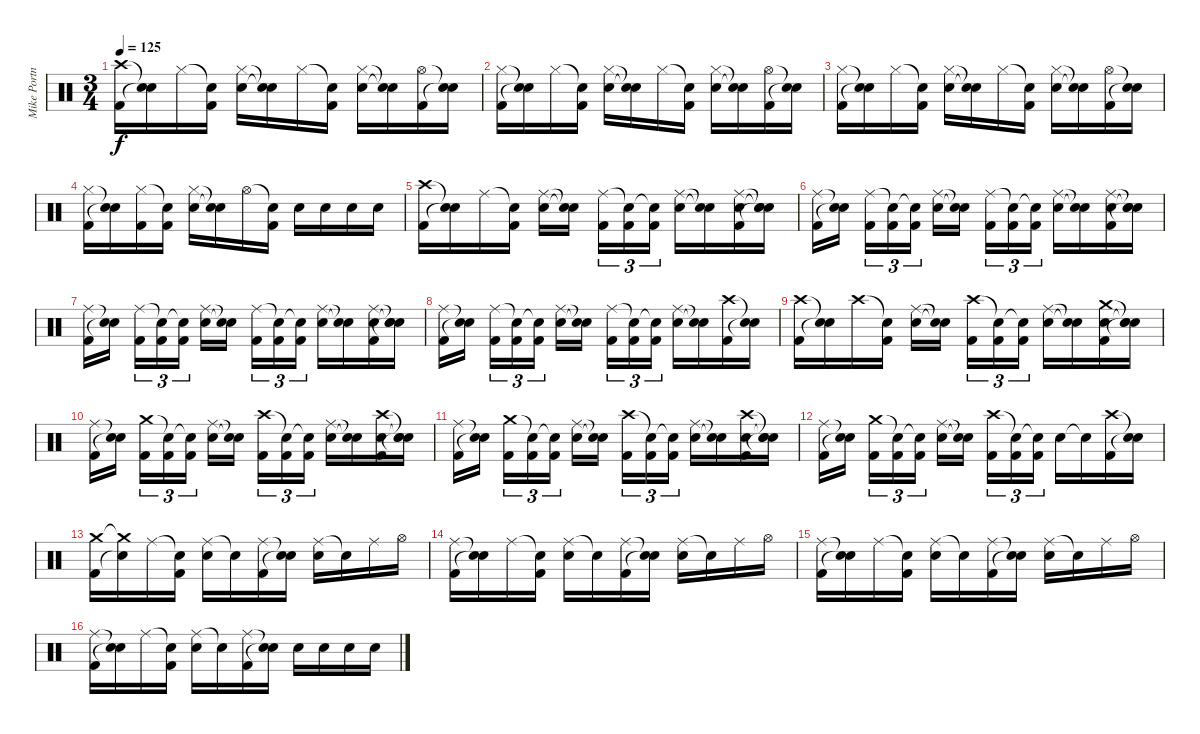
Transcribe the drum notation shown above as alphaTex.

\track ("Mike Portnoy Drums" "Mike Portn") {instrument percussion}
\staff {score}
\articulation defaults
\ts (3 4)
\tempo 125
\clef neutral
\ks c
("Crash high (hit)" "Kick (hit) 2").16{dy f} ("Snare (hit)"{t} "Snare (hit)"{t}).16 "Hi-Hat (closed)".16 ("Snare (hit)"{t} "Kick (hit) 2").16 ("Hi-Hat (closed)" "Snare (hit) 2").16 ("Snare (hit)"{t} "Snare (hit)"{t}).16 "Hi-Hat (closed)".16 ("Snare (hit)"{t} "Kick (hit) 2").16 ("Hi-Hat (closed)" "Snare (hit) 2").16 ("Snare (hit)"{t} "Snare (hit)"{t}).16 ("Hi-Hat (open)" "Kick (hit) 2").16 ("Snare (hit)"{t} "Snare (hit)"{t}).16 |
("Hi-Hat (closed)" "Kick (hit) 2").16 ("Snare (hit)"{t} "Snare (hit)"{t}).16 "Hi-Hat (closed)".16 ("Snare (hit)"{t} "Kick (hit) 2").16 ("Hi-Hat (closed)" "Snare (hit) 2").16 ("Snare (hit)"{t} "Snare (hit)"{t}).16 "Hi-Hat (closed)".16 ("Snare (hit)"{t} "Kick (hit) 2").16 ("Hi-Hat (closed)" "Snare (hit) 2").16 ("Snare (hit)"{t} "Snare (hit)"{t}).16 ("Hi-Hat (open)" "Kick (hit) 2").16 ("Snare (hit)"{t} "Snare (hit)"{t}).16 |
("Hi-Hat (closed)" "Kick (hit) 2").16 ("Snare (hit)"{t} "Snare (hit)"{t}).16 "Hi-Hat (closed)".16 ("Snare (hit)"{t} "Kick (hit) 2").16 ("Hi-Hat (closed)" "Snare (hit) 2").16 ("Snare (hit)"{t} "Snare (hit)"{t}).16 "Hi-Hat (closed)".16 ("Snare (hit)"{t} "Kick (hit) 2").16 ("Hi-Hat (closed)" "Snare (hit) 2").16 ("Snare (hit)"{t} "Snare (hit)"{t}).16 ("Hi-Hat (open)" "Kick (hit) 2").16 ("Snare (hit)"{t} "Snare (hit)"{t}).16 |
("Hi-Hat (closed)" "Kick (hit) 2").16 ("Snare (hit)"{t} "Snare (hit)"{t}).16 ("Hi-Hat (closed)" "Kick (hit) 2").16 ("Snare (hit)"{t} "Kick (hit) 2").16 ("Hi-Hat (closed)" "Snare (hit) 2").16 ("Snare (hit)"{t} "Snare (hit)"{t}).16 "Hi-Hat (open)".16 ("Snare (hit)"{t} "Kick (hit) 2").16 "Snare (hit) 2".16 "Snare (hit) 2".16 "Snare (hit) 2".16 "Snare (hit) 2".16 |
("Crash high (hit)" "Kick (hit) 2").16 ("Snare (hit)"{t} "Snare (hit)"{t}).16 "Ride (middle)".16 ("Snare (hit)"{t} "Kick (hit) 2").16 ("Ride (middle)" "Snare (hit) 2").16 ("Snare (hit)"{t} "Snare (hit)"{t}).16{beam splitsecondary} ("Ride (middle)" "Kick (hit) 2").16{tu (3 2)} ("Snare (hit)"{t} "Kick (hit) 2").16{tu (3 2)} ("Snare (hit)"{t} "Kick (hit) 2").16{tu (3 2)} ("Ride (middle)" "Snare (hit) 2").16 ("Snare (hit)"{t} "Snare (hit)"{t}).16 ("Ride (middle)" "Snare (hit) 2" "Kick (hit) 2").16 ("Snare (hit)"{t} "Snare (hit)"{t} "Snare (hit)"{t}).16 |
("Ride (middle)" "Kick (hit) 2").16 ("Snare (hit)"{t} "Snare (hit)"{t}).16{beam splitsecondary} ("Ride (middle)" "Kick (hit) 2").16{tu (3 2)} ("Snare (hit)"{t} "Kick (hit) 2").16{tu (3 2)} ("Snare (hit)"{t} "Kick (hit) 2").16{tu (3 2)} ("Ride (middle)" "Snare (hit) 2").16 ("Snare (hit)"{t} "Snare (hit)"{t}).16{beam splitsecondary} ("Ride (middle)" "Kick (hit) 2").16{tu (3 2)} ("Snare (hit)"{t} "Kick (hit) 2").16{tu (3 2)} ("Snare (hit)"{t} "Kick (hit) 2").16{tu (3 2)} ("Ride (middle)" "Snare (hit) 2").16 ("Snare (hit)"{t} "Snare (hit)"{t}).16 ("Ride (middle)" "Snare (hit) 2" "Kick (hit) 2").16 ("Snare (hit)"{t} "Snare (hit)"{t} "Snare (hit)"{t}).16 |
("Ride (middle)" "Kick (hit) 2").16 ("Snare (hit)"{t} "Snare (hit)"{t}).16{beam splitsecondary} ("Ride (middle)" "Kick (hit) 2").16{tu (3 2)} ("Snare (hit)"{t} "Kick (hit) 2").16{tu (3 2)} ("Snare (hit)"{t} "Kick (hit) 2").16{tu (3 2)} ("Ride (middle)" "Snare (hit) 2").16 ("Snare (hit)"{t} "Snare (hit)"{t}).16{beam splitsecondary} ("Ride (middle)" "Kick (hit) 2").16{tu (3 2)} ("Snare (hit)"{t} "Kick (hit) 2").16{tu (3 2)} ("Snare (hit)"{t} "Kick (hit) 2").16{tu (3 2)} ("Ride (middle)" "Snare (hit) 2").16 ("Snare (hit)"{t} "Snare (hit)"{t}).16 ("Ride (middle)" "Snare (hit) 2" "Kick (hit) 2").16 ("Snare (hit)"{t} "Snare (hit)"{t} "Snare (hit)"{t}).16 |
("Ride (middle)" "Kick (hit) 2").16 ("Snare (hit)"{t} "Snare (hit)"{t}).16{beam splitsecondary} ("Ride (middle)" "Kick (hit) 2").16{tu (3 2)} ("Snare (hit)"{t} "Kick (hit) 2").16{tu (3 2)} ("Snare (hit)"{t} "Kick (hit) 2").16{tu (3 2)} ("Ride (middle)" "Snare (hit) 2").16 ("Snare (hit)"{t} "Snare (hit)"{t}).16{beam splitsecondary} ("Ride (middle)" "Kick (hit) 2").16{tu (3 2)} ("Snare (hit)"{t} "Kick (hit) 2").16{tu (3 2)} ("Snare (hit)"{t} "Kick (hit) 2").16{tu (3 2)} ("Ride (middle)" "Snare (hit) 2").16 ("Snare (hit)"{t} "Snare (hit)"{t}).16 ("Crash high (hit)" "Kick (hit) 2").16 ("Snare (hit)"{t} "Snare (hit)"{t}).16 |
("Crash high (hit)" "Kick (hit) 2").16 ("Snare (hit)"{t} "Snare (hit)"{t}).16 "Crash high (hit)".16 ("Snare (hit)"{t} "Kick (hit) 2").16 ("Ride (middle)" "Snare (hit) 2").16 ("Snare (hit)"{t} "Snare (hit)"{t}).16{beam splitsecondary} ("Crash high (hit)" "Kick (hit) 2").16{tu (3 2)} ("Snare (hit)"{t} "Kick (hit) 2").16{tu (3 2)} ("Snare (hit)"{t} "Kick (hit) 2").16{tu (3 2)} ("Ride (middle)" "Snare (hit) 2").16 ("Snare (hit)"{t} "Snare (hit)"{t}).16 ("Crash medium (hit)" "Snare (hit) 2" "Kick (hit) 2").16 ("Snare (hit)"{t} "Snare (hit)"{t} "Snare (hit)"{t}).16 |
("Ride (middle)" "Kick (hit) 2").16 ("Snare (hit)"{t} "Snare (hit)"{t}).16{beam splitsecondary} ("Crash medium (hit)" "Kick (hit) 2").16{tu (3 2)} ("Snare (hit)"{t} "Kick (hit) 2").16{tu (3 2)} ("Snare (hit)"{t} "Kick (hit) 2").16{tu (3 2)} ("Ride (middle)" "Snare (hit) 2").16 ("Snare (hit)"{t} "Snare (hit)"{t}).16{beam splitsecondary} ("Crash high (hit)" "Kick (hit) 2").16{tu (3 2)} ("Snare (hit)"{t} "Kick (hit) 2").16{tu (3 2)} ("Snare (hit)"{t} "Kick (hit) 2").16{tu (3 2)} ("Ride (middle)" "Snare (hit) 2").16 ("Snare (hit)"{t} "Snare (hit)"{t}).16 ("Crash high (hit)" "Snare (hit) 2" "Kick (hit) 2").16 ("Snare (hit)"{t} "Snare (hit)"{t} "Snare (hit)"{t}).16 |
("Ride (middle)" "Kick (hit) 2").16 ("Snare (hit)"{t} "Snare (hit)"{t}).16{beam splitsecondary} ("Crash medium (hit)" "Kick (hit) 2").16{tu (3 2)} ("Snare (hit)"{t} "Kick (hit) 2").16{tu (3 2)} ("Snare (hit)"{t} "Kick (hit) 2").16{tu (3 2)} ("Ride (middle)" "Snare (hit) 2").16 ("Snare (hit)"{t} "Snare (hit)"{t}).16{beam splitsecondary} ("Crash high (hit)" "Kick (hit) 2").16{tu (3 2)} ("Snare (hit)"{t} "Kick (hit) 2").16{tu (3 2)} ("Snare (hit)"{t} "Kick (hit) 2").16{tu (3 2)} ("Ride (middle)" "Snare (hit) 2").16 ("Snare (hit)"{t} "Snare (hit)"{t}).16 ("Crash high (hit)" "Snare (hit) 2" "Kick (hit) 2").16 ("Snare (hit)"{t} "Snare (hit)"{t} "Snare (hit)"{t}).16 |
("Ride (middle)" "Kick (hit) 2").16 ("Snare (hit)"{t} "Snare (hit)"{t}).16{beam splitsecondary} ("Crash medium (hit)" "Kick (hit) 2").16{tu (3 2)} ("Snare (hit)"{t} "Kick (hit) 2").16{tu (3 2)} ("Snare (hit)"{t} "Kick (hit) 2").16{tu (3 2)} ("Ride (middle)" "Snare (hit) 2").16 ("Snare (hit)"{t} "Snare (hit)"{t}).16{beam splitsecondary} ("Crash high (hit)" "Kick (hit) 2").16{tu (3 2)} ("Snare (hit)"{t} "Kick (hit) 2").16{tu (3 2)} ("Snare (hit)"{t} "Kick (hit) 2").16{tu (3 2)} "Snare (hit) 2".16 "Snare (hit)"{t}.16 ("Crash high (hit)" "Kick (hit) 2").16 ("Snare (hit)"{t} "Snare (hit)"{t}).16 |
("Crash medium (hit)" "Kick (hit) 2").16 ("Crash medium (hit)"{t} "Snare (hit)"{t}).16 "Ride (middle)".16 ("Snare (hit)"{t} "Kick (hit) 2").16 ("Ride (middle)" "Snare (hit) 2").16 "Snare (hit)"{t}.16 ("Ride (middle)" "Kick (hit) 2").16 ("Snare (hit)"{t} "Snare (hit)"{t}).16 ("Ride (middle)" "Snare (hit) 2").16 "Snare (hit)"{t}.16 "Ride (middle)".16 "Hi-Hat (open)".16 |
("Ride (middle)" "Kick (hit) 2").16 ("Snare (hit)"{t} "Snare (hit)"{t}).16 "Ride (middle)".16 ("Snare (hit)"{t} "Kick (hit) 2").16 ("Ride (middle)" "Snare (hit) 2").16 "Snare (hit)"{t}.16 ("Ride (middle)" "Kick (hit) 2").16 ("Snare (hit)"{t} "Snare (hit)"{t}).16 ("Ride (middle)" "Snare (hit) 2").16 "Snare (hit)"{t}.16 "Ride (middle)".16 "Hi-Hat (open)".16 |
("Ride (middle)" "Kick (hit) 2").16 ("Snare (hit)"{t} "Snare (hit)"{t}).16 "Ride (middle)".16 ("Snare (hit)"{t} "Kick (hit) 2").16 ("Ride (middle)" "Snare (hit) 2").16 "Snare (hit)"{t}.16 ("Ride (middle)" "Kick (hit) 2").16 ("Snare (hit)"{t} "Snare (hit)"{t}).16 ("Ride (middle)" "Snare (hit) 2").16 "Snare (hit)"{t}.16 "Ride (middle)".16 "Hi-Hat (open)".16 |
("Ride (middle)" "Kick (hit) 2").16 ("Snare (hit)"{t} "Snare (hit)"{t}).16 "Ride (middle)".16 ("Snare (hit)"{t} "Kick (hit) 2").16 ("Ride (middle)" "Snare (hit) 2").16 "Snare (hit)"{t}.16 ("Ride (middle)" "Kick (hit) 2").16 ("Snare (hit)"{t} "Snare (hit)"{t}).16 "Snare (hit) 2".16 "Snare (hit) 2".16 "Snare (hit) 2".16 "Snare (hit) 2".16
